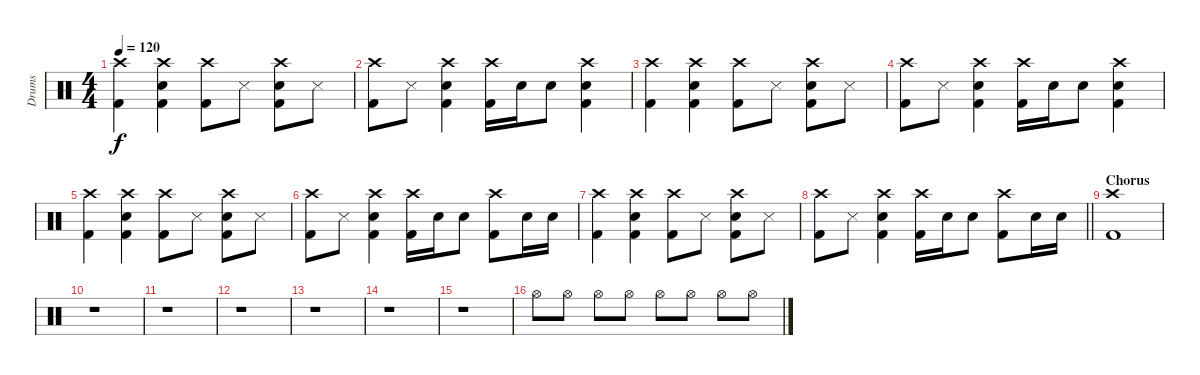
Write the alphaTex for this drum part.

\track ("Drums" "Drums") {instrument percussion}
\staff {score}
\articulation defaults
\ts (4 4)
\tempo 120
\clef neutral
\ks c
("Crash high (hit)" "Kick (hit) 2").4{dy f} ("Crash high (hit)" "Snare (hit) 2" "Kick (hit) 2").4 ("Crash high (hit)" "Kick (hit) 2").8 "Snare (side stick) 3".8 ("Crash high (hit)" "Snare (hit) 2" "Kick (hit) 2").8 "Snare (side stick) 3".8 |
("Crash high (hit)" "Kick (hit) 2").8 "Snare (side stick) 3".8 ("Crash high (hit)" "Snare (hit) 2" "Kick (hit) 2").4 ("Crash high (hit)" "Kick (hit) 2").16 "Snare (hit) 2".16 "Snare (hit) 2".8 ("Crash high (hit)" "Snare (hit) 2" "Kick (hit) 2").4 |
("Crash high (hit)" "Kick (hit) 2").4 ("Crash high (hit)" "Snare (hit) 2" "Kick (hit) 2").4 ("Crash high (hit)" "Kick (hit) 2").8 "Snare (side stick) 3".8 ("Crash high (hit)" "Snare (hit) 2" "Kick (hit) 2").8 "Snare (side stick) 3".8 |
("Crash high (hit)" "Kick (hit) 2").8 "Snare (side stick) 3".8 ("Crash high (hit)" "Snare (hit) 2" "Kick (hit) 2").4 ("Crash high (hit)" "Kick (hit) 2").16 "Snare (hit) 2".16 "Snare (hit) 2".8 ("Crash high (hit)" "Snare (hit) 2" "Kick (hit) 2").4 |
("Crash high (hit)" "Kick (hit) 2").4 ("Crash high (hit)" "Snare (hit) 2" "Kick (hit) 2").4 ("Crash high (hit)" "Kick (hit) 2").8 "Snare (side stick) 3".8 ("Crash high (hit)" "Snare (hit) 2" "Kick (hit) 2").8 "Snare (side stick) 3".8 |
("Crash high (hit)" "Kick (hit) 2").8 "Snare (side stick) 3".8 ("Crash high (hit)" "Snare (hit) 2" "Kick (hit) 2").4 ("Crash high (hit)" "Kick (hit) 2").16 "Snare (hit) 2".16 "Snare (hit) 2".8 ("Crash high (hit)" "Kick (hit) 2").8 "Snare (hit) 2".16 "Snare (hit) 2".16 |
("Crash high (hit)" "Kick (hit) 2").4 ("Crash high (hit)" "Snare (hit) 2" "Kick (hit) 2").4 ("Crash high (hit)" "Kick (hit) 2").8 "Snare (side stick) 3".8 ("Crash high (hit)" "Snare (hit) 2" "Kick (hit) 2").8 "Snare (side stick) 3".8 |
\barLineRight lightlight
("Crash high (hit)" "Kick (hit) 2").8 "Snare (side stick) 3".8 ("Crash high (hit)" "Snare (hit) 2" "Kick (hit) 2").4 ("Crash high (hit)" "Kick (hit) 2").16 "Snare (hit) 2".16 "Snare (hit) 2".8 ("Crash high (hit)" "Kick (hit) 2").8 "Snare (hit) 2".16 "Snare (hit) 2".16 |
\section ("" "Chorus")
("Crash high (hit)" "Kick (hit) 2").1 |
r.1 |
r.1 |
r.1 |
r.1 |
r.1 |
r.1 |
"Hi-Hat (open)".8{volume 2} "Hi-Hat (open)".8 "Hi-Hat (open)".8{volume 13} "Hi-Hat (open)".8 "Hi-Hat (open)".8 "Hi-Hat (open)".8 "Hi-Hat (open)".8 "Hi-Hat (open)".8
